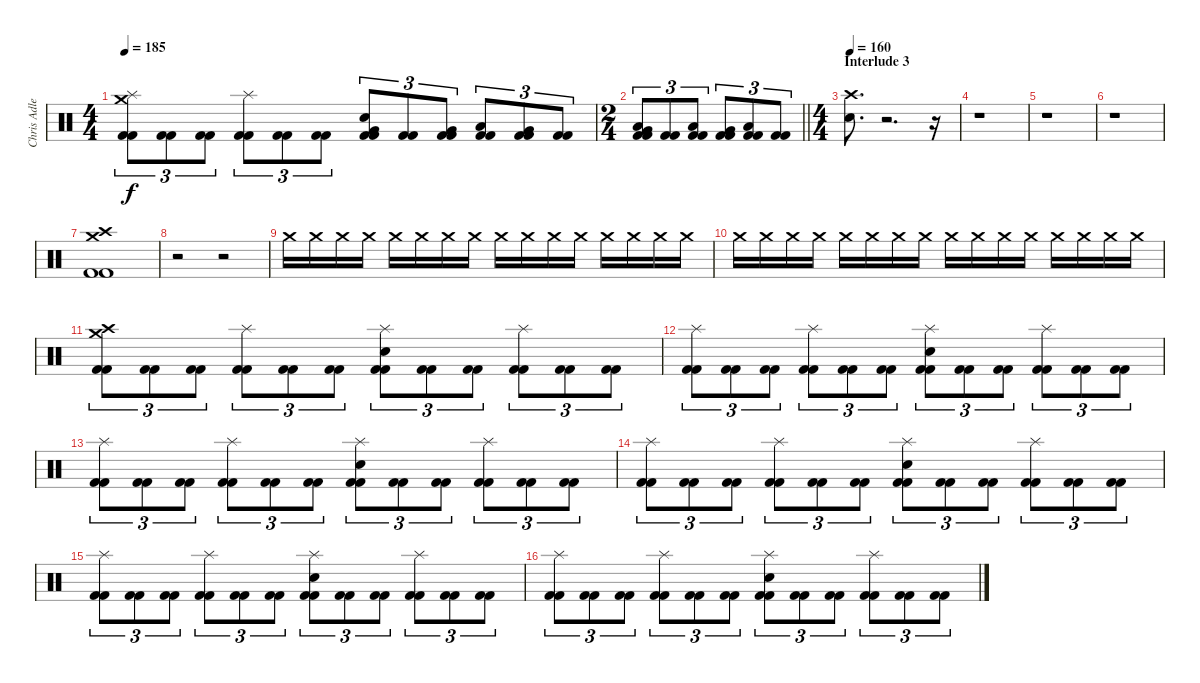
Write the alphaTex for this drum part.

\track ("Chris Adler" "Chris Adle") {instrument percussion}
\staff {score}
\articulation defaults
\ts (4 4)
\tempo 185
\clef neutral
\ks c
("Crash medium (hit)" "Splash (hit)" "Kick (hit) 2" "Kick (hit) 2").8{tu (3 2) dy f} ("Kick (hit) 2" "Kick (hit) 2").8{tu (3 2)} ("Kick (hit) 2" "Kick (hit) 2").8{tu (3 2)} ("Splash (hit)" "Kick (hit) 2" "Kick (hit) 2").8{tu (3 2)} ("Kick (hit) 2" "Kick (hit) 2").8{tu (3 2)} ("Kick (hit) 2" "Kick (hit) 2").8{tu (3 2)} ("Very Low Tom (hit)" "Electric Snare (hit)" "Kick (hit) 2" "Kick (hit) 2").8{tu (3 2)} ("Kick (hit) 2" "Kick (hit) 2").8{tu (3 2)} ("Very Low Tom (hit)" "Kick (hit) 2" "Kick (hit) 2").8{tu (3 2)} ("Low Tom (hit)" "Kick (hit) 2" "Kick (hit) 2").8{tu (3 2)} ("Very Low Tom (hit)" "Kick (hit) 2" "Kick (hit) 2").8{tu (3 2)} ("Kick (hit) 2" "Kick (hit) 2").8{tu (3 2)} |
\ts (2 4)
\barLineRight lightlight
("Very Low Tom (hit)" "Low Floor Tom (hit)" "Kick (hit) 2" "Kick (hit) 2").8{tu (3 2)} ("Kick (hit) 2" "Kick (hit) 2").8{tu (3 2)} ("Low Floor Tom (hit)" "Kick (hit) 2" "Kick (hit) 2").8{tu (3 2)} ("Very Low Tom (hit)" "Kick (hit) 2" "Kick (hit) 2").8{tu (3 2)} ("Low Floor Tom (hit)" "Kick (hit) 2" "Kick (hit) 2").8{tu (3 2)} ("Kick (hit) 2" "Kick (hit) 2").8{tu (3 2)} |
\ts (4 4)
\section ("" "Interlude 3")
\tempo 160
("Crash high (hit)" "Electric Snare (hit)").8{d} r.2{d volume 0} r.16 |
r.1 |
r.1 |
r.1 |
("Crash medium (hit)" "Crash high (hit)" "Kick (hit) 2" "Kick (hit) 2").1{volume 13} |
r.2 r.2{volume 0} |
"Crash medium (hit)".16{volume 13} "Crash medium (hit)".16 "Crash medium (hit)".16 "Crash medium (hit)".16 "Crash medium (hit)".16 "Crash medium (hit)".16 "Crash medium (hit)".16 "Crash medium (hit)".16 "Crash medium (hit)".16 "Crash medium (hit)".16 "Crash medium (hit)".16 "Crash medium (hit)".16 "Crash medium (hit)".16 "Crash medium (hit)".16 "Crash medium (hit)".16 "Crash medium (hit)".16 |
"Crash medium (hit)".16 "Crash medium (hit)".16 "Crash medium (hit)".16 "Crash medium (hit)".16 "Crash medium (hit)".16 "Crash medium (hit)".16 "Crash medium (hit)".16 "Crash medium (hit)".16 "Crash medium (hit)".16 "Crash medium (hit)".16 "Crash medium (hit)".16 "Crash medium (hit)".16 "Crash medium (hit)".16 "Crash medium (hit)".16 "Crash medium (hit)".16 "Crash medium (hit)".16 |
("Crash medium (hit)" "Crash high (hit)" "Kick (hit) 2" "Kick (hit) 2").8{tu (3 2)} ("Kick (hit) 2" "Kick (hit) 2").8{tu (3 2)} ("Kick (hit) 2" "Kick (hit) 2").8{tu (3 2)} ("Splash (hit)" "Kick (hit) 2" "Kick (hit) 2").8{tu (3 2)} ("Kick (hit) 2" "Kick (hit) 2").8{tu (3 2)} ("Kick (hit) 2" "Kick (hit) 2").8{tu (3 2)} ("Splash (hit)" "Electric Snare (hit)" "Kick (hit) 2" "Kick (hit) 2").8{tu (3 2)} ("Kick (hit) 2" "Kick (hit) 2").8{tu (3 2)} ("Kick (hit) 2" "Kick (hit) 2").8{tu (3 2)} ("Splash (hit)" "Kick (hit) 2" "Kick (hit) 2").8{tu (3 2)} ("Kick (hit) 2" "Kick (hit) 2").8{tu (3 2)} ("Kick (hit) 2" "Kick (hit) 2").8{tu (3 2)} |
("Splash (hit)" "Kick (hit) 2" "Kick (hit) 2").8{tu (3 2)} ("Kick (hit) 2" "Kick (hit) 2").8{tu (3 2)} ("Kick (hit) 2" "Kick (hit) 2").8{tu (3 2)} ("Splash (hit)" "Kick (hit) 2" "Kick (hit) 2").8{tu (3 2)} ("Kick (hit) 2" "Kick (hit) 2").8{tu (3 2)} ("Kick (hit) 2" "Kick (hit) 2").8{tu (3 2)} ("Splash (hit)" "Electric Snare (hit)" "Kick (hit) 2" "Kick (hit) 2").8{tu (3 2)} ("Kick (hit) 2" "Kick (hit) 2").8{tu (3 2)} ("Kick (hit) 2" "Kick (hit) 2").8{tu (3 2)} ("Splash (hit)" "Kick (hit) 2" "Kick (hit) 2").8{tu (3 2)} ("Kick (hit) 2" "Kick (hit) 2").8{tu (3 2)} ("Kick (hit) 2" "Kick (hit) 2").8{tu (3 2)} |
("Splash (hit)" "Kick (hit) 2" "Kick (hit) 2").8{tu (3 2)} ("Kick (hit) 2" "Kick (hit) 2").8{tu (3 2)} ("Kick (hit) 2" "Kick (hit) 2").8{tu (3 2)} ("Splash (hit)" "Kick (hit) 2" "Kick (hit) 2").8{tu (3 2)} ("Kick (hit) 2" "Kick (hit) 2").8{tu (3 2)} ("Kick (hit) 2" "Kick (hit) 2").8{tu (3 2)} ("Splash (hit)" "Electric Snare (hit)" "Kick (hit) 2" "Kick (hit) 2").8{tu (3 2)} ("Kick (hit) 2" "Kick (hit) 2").8{tu (3 2)} ("Kick (hit) 2" "Kick (hit) 2").8{tu (3 2)} ("Splash (hit)" "Kick (hit) 2" "Kick (hit) 2").8{tu (3 2)} ("Kick (hit) 2" "Kick (hit) 2").8{tu (3 2)} ("Kick (hit) 2" "Kick (hit) 2").8{tu (3 2)} |
("Splash (hit)" "Kick (hit) 2" "Kick (hit) 2").8{tu (3 2)} ("Kick (hit) 2" "Kick (hit) 2").8{tu (3 2)} ("Kick (hit) 2" "Kick (hit) 2").8{tu (3 2)} ("Splash (hit)" "Kick (hit) 2" "Kick (hit) 2").8{tu (3 2)} ("Kick (hit) 2" "Kick (hit) 2").8{tu (3 2)} ("Kick (hit) 2" "Kick (hit) 2").8{tu (3 2)} ("Splash (hit)" "Electric Snare (hit)" "Kick (hit) 2" "Kick (hit) 2").8{tu (3 2)} ("Kick (hit) 2" "Kick (hit) 2").8{tu (3 2)} ("Kick (hit) 2" "Kick (hit) 2").8{tu (3 2)} ("Splash (hit)" "Kick (hit) 2" "Kick (hit) 2").8{tu (3 2)} ("Kick (hit) 2" "Kick (hit) 2").8{tu (3 2)} ("Kick (hit) 2" "Kick (hit) 2").8{tu (3 2)} |
("Splash (hit)" "Kick (hit) 2" "Kick (hit) 2").8{tu (3 2)} ("Kick (hit) 2" "Kick (hit) 2").8{tu (3 2)} ("Kick (hit) 2" "Kick (hit) 2").8{tu (3 2)} ("Splash (hit)" "Kick (hit) 2" "Kick (hit) 2").8{tu (3 2)} ("Kick (hit) 2" "Kick (hit) 2").8{tu (3 2)} ("Kick (hit) 2" "Kick (hit) 2").8{tu (3 2)} ("Splash (hit)" "Electric Snare (hit)" "Kick (hit) 2" "Kick (hit) 2").8{tu (3 2)} ("Kick (hit) 2" "Kick (hit) 2").8{tu (3 2)} ("Kick (hit) 2" "Kick (hit) 2").8{tu (3 2)} ("Splash (hit)" "Kick (hit) 2" "Kick (hit) 2").8{tu (3 2)} ("Kick (hit) 2" "Kick (hit) 2").8{tu (3 2)} ("Kick (hit) 2" "Kick (hit) 2").8{tu (3 2)} |
("Splash (hit)" "Kick (hit) 2" "Kick (hit) 2").8{tu (3 2)} ("Kick (hit) 2" "Kick (hit) 2").8{tu (3 2)} ("Kick (hit) 2" "Kick (hit) 2").8{tu (3 2)} ("Splash (hit)" "Kick (hit) 2" "Kick (hit) 2").8{tu (3 2)} ("Kick (hit) 2" "Kick (hit) 2").8{tu (3 2)} ("Kick (hit) 2" "Kick (hit) 2").8{tu (3 2)} ("Splash (hit)" "Electric Snare (hit)" "Kick (hit) 2" "Kick (hit) 2").8{tu (3 2)} ("Kick (hit) 2" "Kick (hit) 2").8{tu (3 2)} ("Kick (hit) 2" "Kick (hit) 2").8{tu (3 2)} ("Splash (hit)" "Kick (hit) 2" "Kick (hit) 2").8{tu (3 2)} ("Kick (hit) 2" "Kick (hit) 2").8{tu (3 2)} ("Kick (hit) 2" "Kick (hit) 2").8{tu (3 2)}
